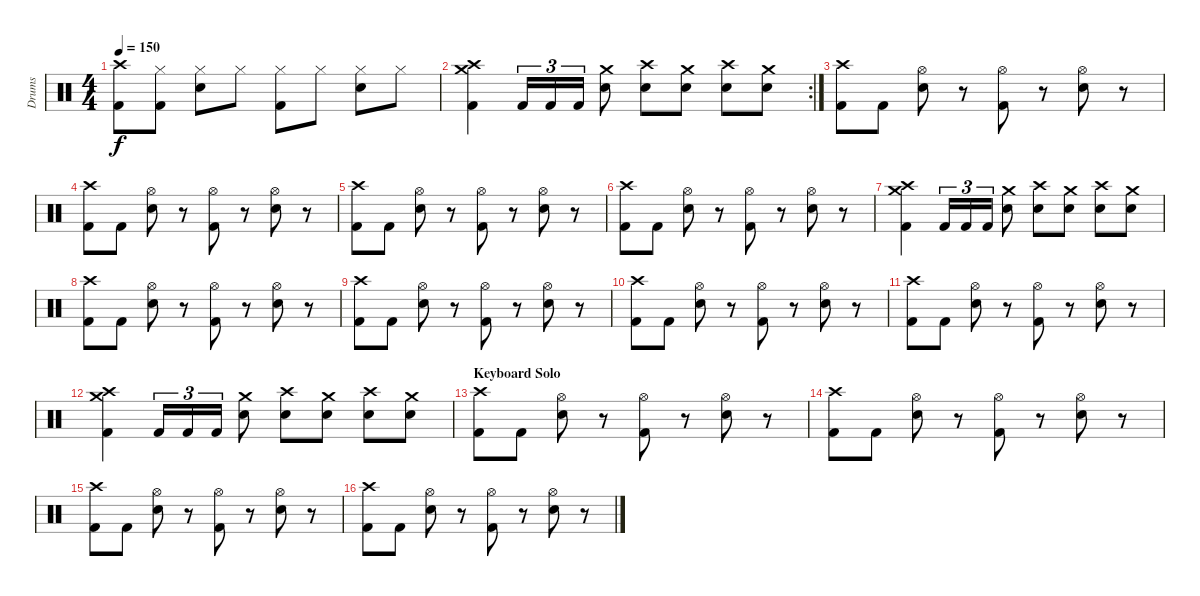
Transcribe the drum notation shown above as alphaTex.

\track ("Drums" "Drums") {instrument percussion}
\staff {score}
\articulation defaults
\ts (4 4)
\tempo 150
\clef neutral
\ks c
("Crash high (hit)" "Kick (hit) 2").8{dy f} ("Hi-Hat (closed)" "Kick (hit) 2").8 ("Hi-Hat (closed)" "Snare (hit) 2").8 "Hi-Hat (closed)".8 ("Hi-Hat (closed)" "Kick (hit) 2").8 "Hi-Hat (closed)".8 ("Hi-Hat (closed)" "Snare (hit) 2").8 "Hi-Hat (closed)".8 |
\rc 2
("Crash high (hit)" "Crash medium (hit)" "Kick (hit) 2").4 "Kick (hit) 2".16{tu (3 2)} "Kick (hit) 2".16{tu (3 2)} "Kick (hit) 2".16{tu (3 2)} ("Crash medium (hit)" "Snare (hit) 2").8 ("Crash high (hit)" "Snare (hit) 2").8 ("Crash medium (hit)" "Snare (hit) 2").8 ("Crash high (hit)" "Snare (hit) 2").8 ("Crash medium (hit)" "Snare (hit) 2").8 |
("Crash high (hit)" "Kick (hit) 2").8 "Kick (hit) 2".8 ("Hi-Hat (open)" "Snare (hit) 2").8 r.8 ("Hi-Hat (open)" "Kick (hit) 2").8 r.8 ("Hi-Hat (open)" "Snare (hit) 2").8 r.8 |
("Crash high (hit)" "Kick (hit) 2").8 "Kick (hit) 2".8 ("Hi-Hat (open)" "Snare (hit) 2").8 r.8 ("Hi-Hat (open)" "Kick (hit) 2").8 r.8 ("Hi-Hat (open)" "Snare (hit) 2").8 r.8 |
("Crash high (hit)" "Kick (hit) 2").8 "Kick (hit) 2".8 ("Hi-Hat (open)" "Snare (hit) 2").8 r.8 ("Hi-Hat (open)" "Kick (hit) 2").8 r.8 ("Hi-Hat (open)" "Snare (hit) 2").8 r.8 |
("Crash high (hit)" "Kick (hit) 2").8 "Kick (hit) 2".8 ("Hi-Hat (open)" "Snare (hit) 2").8 r.8 ("Hi-Hat (open)" "Kick (hit) 2").8 r.8 ("Hi-Hat (open)" "Snare (hit) 2").8 r.8 |
("Crash medium (hit)" "Crash high (hit)" "Kick (hit) 2").4 "Kick (hit) 2".16{tu (3 2)} "Kick (hit) 2".16{tu (3 2)} "Kick (hit) 2".16{tu (3 2)} ("Crash medium (hit)" "Snare (hit) 2").8 ("Crash high (hit)" "Snare (hit) 2").8 ("Crash medium (hit)" "Snare (hit) 2").8 ("Crash high (hit)" "Snare (hit) 2").8 ("Crash medium (hit)" "Snare (hit) 2").8 |
("Crash high (hit)" "Kick (hit) 2").8 "Kick (hit) 2".8 ("Hi-Hat (open)" "Snare (hit) 2").8 r.8 ("Hi-Hat (open)" "Kick (hit) 2").8 r.8 ("Hi-Hat (open)" "Snare (hit) 2").8 r.8 |
("Crash high (hit)" "Kick (hit) 2").8 "Kick (hit) 2".8 ("Hi-Hat (open)" "Snare (hit) 2").8 r.8 ("Hi-Hat (open)" "Kick (hit) 2").8 r.8 ("Hi-Hat (open)" "Snare (hit) 2").8 r.8 |
("Crash high (hit)" "Kick (hit) 2").8 "Kick (hit) 2".8 ("Hi-Hat (open)" "Snare (hit) 2").8 r.8 ("Hi-Hat (open)" "Kick (hit) 2").8 r.8 ("Hi-Hat (open)" "Snare (hit) 2").8 r.8 |
("Crash high (hit)" "Kick (hit) 2").8 "Kick (hit) 2".8 ("Hi-Hat (open)" "Snare (hit) 2").8 r.8 ("Hi-Hat (open)" "Kick (hit) 2").8 r.8 ("Hi-Hat (open)" "Snare (hit) 2").8 r.8 |
("Crash medium (hit)" "Crash high (hit)" "Kick (hit) 2").4 "Kick (hit) 2".16{tu (3 2)} "Kick (hit) 2".16{tu (3 2)} "Kick (hit) 2".16{tu (3 2)} ("Crash medium (hit)" "Snare (hit) 2").8 ("Crash high (hit)" "Snare (hit) 2").8 ("Crash medium (hit)" "Snare (hit) 2").8 ("Crash high (hit)" "Snare (hit) 2").8 ("Crash medium (hit)" "Snare (hit) 2").8 |
\section ("" "Keyboard Solo")
("Crash high (hit)" "Kick (hit) 2").8 "Kick (hit) 2".8 ("Hi-Hat (open)" "Snare (hit) 2").8 r.8 ("Hi-Hat (open)" "Kick (hit) 2").8 r.8 ("Hi-Hat (open)" "Snare (hit) 2").8 r.8 |
("Crash high (hit)" "Kick (hit) 2").8 "Kick (hit) 2".8 ("Hi-Hat (open)" "Snare (hit) 2").8 r.8 ("Hi-Hat (open)" "Kick (hit) 2").8 r.8 ("Hi-Hat (open)" "Snare (hit) 2").8 r.8 |
("Crash high (hit)" "Kick (hit) 2").8 "Kick (hit) 2".8 ("Hi-Hat (open)" "Snare (hit) 2").8 r.8 ("Hi-Hat (open)" "Kick (hit) 2").8 r.8 ("Hi-Hat (open)" "Snare (hit) 2").8 r.8 |
("Crash high (hit)" "Kick (hit) 2").8 "Kick (hit) 2".8 ("Hi-Hat (open)" "Snare (hit) 2").8 r.8 ("Hi-Hat (open)" "Kick (hit) 2").8 r.8 ("Hi-Hat (open)" "Snare (hit) 2").8 r.8
